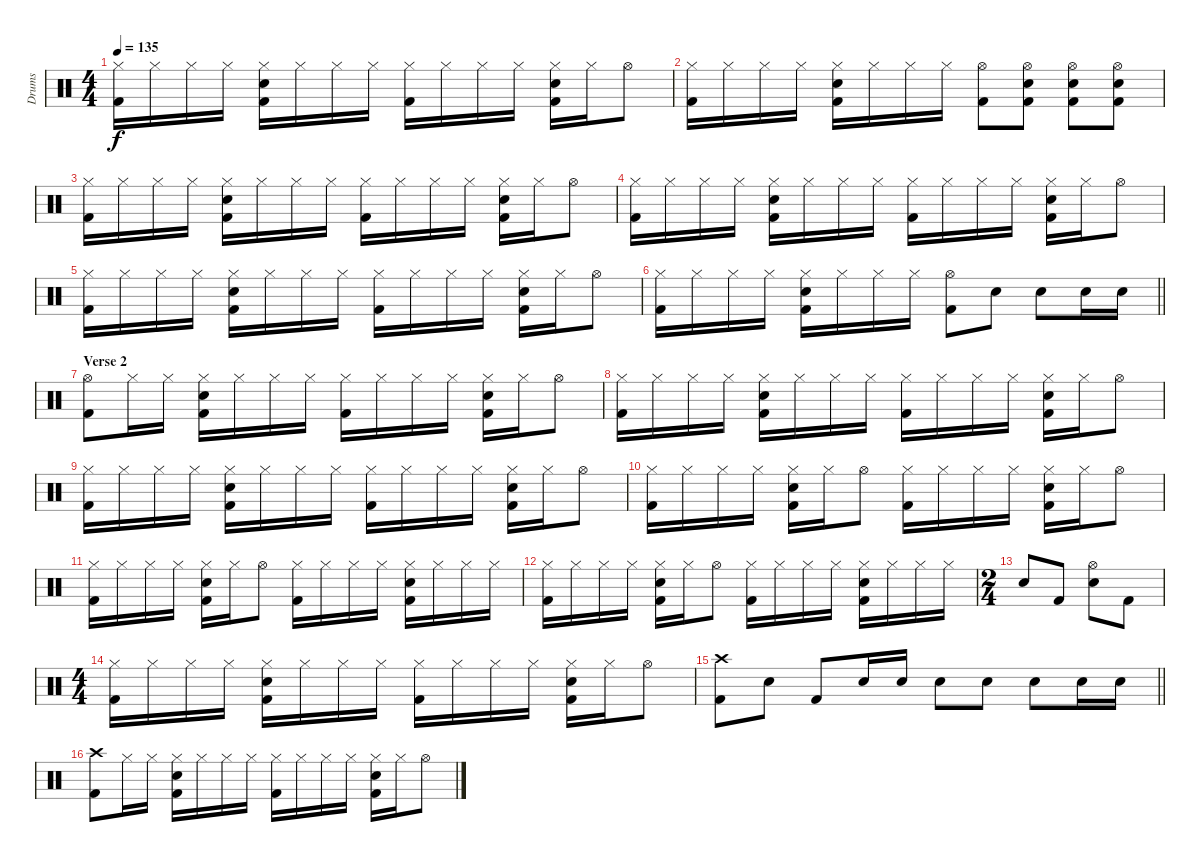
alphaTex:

\track ("Drums" "Drums") {instrument percussion}
\staff {score}
\articulation defaults
\ts (4 4)
\tempo 135
\clef neutral
\ks c
("Hi-Hat (closed)" "Kick (hit) 2").16{dy f} "Hi-Hat (closed)".16 "Hi-Hat (closed)".16 "Hi-Hat (closed)".16 ("Hi-Hat (closed)" "Electric Snare (hit)" "Kick (hit) 2").16 "Hi-Hat (closed)".16 "Hi-Hat (closed)".16 "Hi-Hat (closed)".16 ("Hi-Hat (closed)" "Kick (hit) 2").16 "Hi-Hat (closed)".16 "Hi-Hat (closed)".16 "Hi-Hat (closed)".16 ("Hi-Hat (closed)" "Electric Snare (hit)" "Kick (hit) 2").16 "Hi-Hat (closed)".16 "Hi-Hat (open)".8 |
("Hi-Hat (closed)" "Kick (hit) 2").16 "Hi-Hat (closed)".16 "Hi-Hat (closed)".16 "Hi-Hat (closed)".16 ("Hi-Hat (closed)" "Electric Snare (hit)" "Kick (hit) 2").16 "Hi-Hat (closed)".16 "Hi-Hat (closed)".16 "Hi-Hat (closed)".16 ("Hi-Hat (open)" "Kick (hit) 2").8 ("Hi-Hat (open)" "Electric Snare (hit)" "Kick (hit) 2").8 ("Hi-Hat (open)" "Electric Snare (hit)" "Kick (hit) 2").8 ("Hi-Hat (open)" "Electric Snare (hit)" "Kick (hit) 2").8 |
("Hi-Hat (closed)" "Kick (hit) 2").16 "Hi-Hat (closed)".16 "Hi-Hat (closed)".16 "Hi-Hat (closed)".16 ("Hi-Hat (closed)" "Electric Snare (hit)" "Kick (hit) 2").16 "Hi-Hat (closed)".16 "Hi-Hat (closed)".16 "Hi-Hat (closed)".16 ("Hi-Hat (closed)" "Kick (hit) 2").16 "Hi-Hat (closed)".16 "Hi-Hat (closed)".16 "Hi-Hat (closed)".16 ("Hi-Hat (closed)" "Electric Snare (hit)" "Kick (hit) 2").16 "Hi-Hat (closed)".16 "Hi-Hat (open)".8 |
("Hi-Hat (closed)" "Kick (hit) 2").16 "Hi-Hat (closed)".16 "Hi-Hat (closed)".16 "Hi-Hat (closed)".16 ("Hi-Hat (closed)" "Electric Snare (hit)" "Kick (hit) 2").16 "Hi-Hat (closed)".16 "Hi-Hat (closed)".16 "Hi-Hat (closed)".16 ("Hi-Hat (closed)" "Kick (hit) 2").16 "Hi-Hat (closed)".16 "Hi-Hat (closed)".16 "Hi-Hat (closed)".16 ("Hi-Hat (closed)" "Electric Snare (hit)" "Kick (hit) 2").16 "Hi-Hat (closed)".16 "Hi-Hat (open)".8 |
("Hi-Hat (closed)" "Kick (hit) 2").16 "Hi-Hat (closed)".16 "Hi-Hat (closed)".16 "Hi-Hat (closed)".16 ("Hi-Hat (closed)" "Electric Snare (hit)" "Kick (hit) 2").16 "Hi-Hat (closed)".16 "Hi-Hat (closed)".16 "Hi-Hat (closed)".16 ("Hi-Hat (closed)" "Kick (hit) 2").16 "Hi-Hat (closed)".16 "Hi-Hat (closed)".16 "Hi-Hat (closed)".16 ("Hi-Hat (closed)" "Electric Snare (hit)" "Kick (hit) 2").16 "Hi-Hat (closed)".16 "Hi-Hat (open)".8 |
\barLineRight lightlight
("Hi-Hat (closed)" "Kick (hit) 2").16 "Hi-Hat (closed)".16 "Hi-Hat (closed)".16 "Hi-Hat (closed)".16 ("Hi-Hat (closed)" "Electric Snare (hit)" "Kick (hit) 2").16 "Hi-Hat (closed)".16 "Hi-Hat (closed)".16 "Hi-Hat (closed)".16 ("Hi-Hat (open)" "Kick (hit) 2").8 "Electric Snare (hit)".8 "Electric Snare (hit)".8 "Electric Snare (hit)".16 "Electric Snare (hit)".16 |
\section ("" "Verse 2")
("Hi-Hat (open)" "Kick (hit) 2").8 "Hi-Hat (closed)".16 "Hi-Hat (closed)".16 ("Hi-Hat (closed)" "Electric Snare (hit)" "Kick (hit) 2").16 "Hi-Hat (closed)".16 "Hi-Hat (closed)".16 "Hi-Hat (closed)".16 ("Hi-Hat (closed)" "Kick (hit) 2").16 "Hi-Hat (closed)".16 "Hi-Hat (closed)".16 "Hi-Hat (closed)".16 ("Hi-Hat (closed)" "Electric Snare (hit)" "Kick (hit) 2").16 "Hi-Hat (closed)".16 "Hi-Hat (open)".8 |
("Hi-Hat (closed)" "Kick (hit) 2").16 "Hi-Hat (closed)".16 "Hi-Hat (closed)".16 "Hi-Hat (closed)".16 ("Hi-Hat (closed)" "Electric Snare (hit)" "Kick (hit) 2").16 "Hi-Hat (closed)".16 "Hi-Hat (closed)".16 "Hi-Hat (closed)".16 ("Hi-Hat (closed)" "Kick (hit) 2").16 "Hi-Hat (closed)".16 "Hi-Hat (closed)".16 "Hi-Hat (closed)".16 ("Hi-Hat (closed)" "Electric Snare (hit)" "Kick (hit) 2").16 "Hi-Hat (closed)".16 "Hi-Hat (open)".8 |
("Hi-Hat (closed)" "Kick (hit) 2").16 "Hi-Hat (closed)".16 "Hi-Hat (closed)".16 "Hi-Hat (closed)".16 ("Hi-Hat (closed)" "Electric Snare (hit)" "Kick (hit) 2").16 "Hi-Hat (closed)".16 "Hi-Hat (closed)".16 "Hi-Hat (closed)".16 ("Hi-Hat (closed)" "Kick (hit) 2").16 "Hi-Hat (closed)".16 "Hi-Hat (closed)".16 "Hi-Hat (closed)".16 ("Hi-Hat (closed)" "Electric Snare (hit)" "Kick (hit) 2").16 "Hi-Hat (closed)".16 "Hi-Hat (open)".8 |
("Hi-Hat (closed)" "Kick (hit) 2").16 "Hi-Hat (closed)".16 "Hi-Hat (closed)".16 "Hi-Hat (closed)".16 ("Hi-Hat (closed)" "Electric Snare (hit)" "Kick (hit) 2").16 "Hi-Hat (closed)".16 "Hi-Hat (open)".8 ("Hi-Hat (closed)" "Kick (hit) 2").16 "Hi-Hat (closed)".16 "Hi-Hat (closed)".16 "Hi-Hat (closed)".16 ("Hi-Hat (closed)" "Electric Snare (hit)" "Kick (hit) 2").16 "Hi-Hat (closed)".16 "Hi-Hat (open)".8 |
("Hi-Hat (closed)" "Kick (hit) 2").16 "Hi-Hat (closed)".16 "Hi-Hat (closed)".16 "Hi-Hat (closed)".16 ("Hi-Hat (closed)" "Electric Snare (hit)" "Kick (hit) 2").16 "Hi-Hat (closed)".16 "Hi-Hat (open)".8 ("Hi-Hat (closed)" "Kick (hit) 2").16 "Hi-Hat (closed)".16 "Hi-Hat (closed)".16 "Hi-Hat (closed)".16 ("Hi-Hat (closed)" "Electric Snare (hit)" "Kick (hit) 2").16 "Hi-Hat (closed)".16 "Hi-Hat (closed)".16 "Hi-Hat (closed)".16 |
("Hi-Hat (closed)" "Kick (hit) 2").16 "Hi-Hat (closed)".16 "Hi-Hat (closed)".16 "Hi-Hat (closed)".16 ("Hi-Hat (closed)" "Electric Snare (hit)" "Kick (hit) 2").16 "Hi-Hat (closed)".16 "Hi-Hat (open)".8 ("Hi-Hat (closed)" "Kick (hit) 2").16 "Hi-Hat (closed)".16 "Hi-Hat (closed)".16 "Hi-Hat (closed)".16 ("Hi-Hat (closed)" "Electric Snare (hit)" "Kick (hit) 2").16 "Hi-Hat (closed)".16 "Hi-Hat (closed)".16 "Hi-Hat (closed)".16 |
\ts (2 4)
"Electric Snare (hit)".8 "Kick (hit) 2".8 ("Hi-Hat (open)" "Electric Snare (hit)").8 "Kick (hit) 2".8 |
\ts (4 4)
("Hi-Hat (closed)" "Kick (hit) 2").16 "Hi-Hat (closed)".16 "Hi-Hat (closed)".16 "Hi-Hat (closed)".16 ("Hi-Hat (closed)" "Electric Snare (hit)" "Kick (hit) 2").16 "Hi-Hat (closed)".16 "Hi-Hat (closed)".16 "Hi-Hat (closed)".16 ("Hi-Hat (closed)" "Kick (hit) 2").16 "Hi-Hat (closed)".16 "Hi-Hat (closed)".16 "Hi-Hat (closed)".16 ("Hi-Hat (closed)" "Electric Snare (hit)" "Kick (hit) 2").16 "Hi-Hat (closed)".16 "Hi-Hat (open)".8 |
\barLineRight lightlight
("Crash high (hit)" "Kick (hit) 2").8 "Electric Snare (hit)".8 "Kick (hit) 2".8 "Electric Snare (hit)".16 "Electric Snare (hit)".16 "Electric Snare (hit)".8 "Electric Snare (hit)".8 "Electric Snare (hit)".8 "Electric Snare (hit)".16 "Electric Snare (hit)".16 |
("Crash high (hit)" "Kick (hit) 2").8 "Hi-Hat (closed)".16 "Hi-Hat (closed)".16 ("Hi-Hat (closed)" "Electric Snare (hit)" "Kick (hit) 2").16 "Hi-Hat (closed)".16 "Hi-Hat (closed)".16 "Hi-Hat (closed)".16 ("Hi-Hat (closed)" "Kick (hit) 2").16 "Hi-Hat (closed)".16 "Hi-Hat (closed)".16 "Hi-Hat (closed)".16 ("Hi-Hat (closed)" "Electric Snare (hit)" "Kick (hit) 2").16 "Hi-Hat (closed)".16 "Hi-Hat (open)".8
